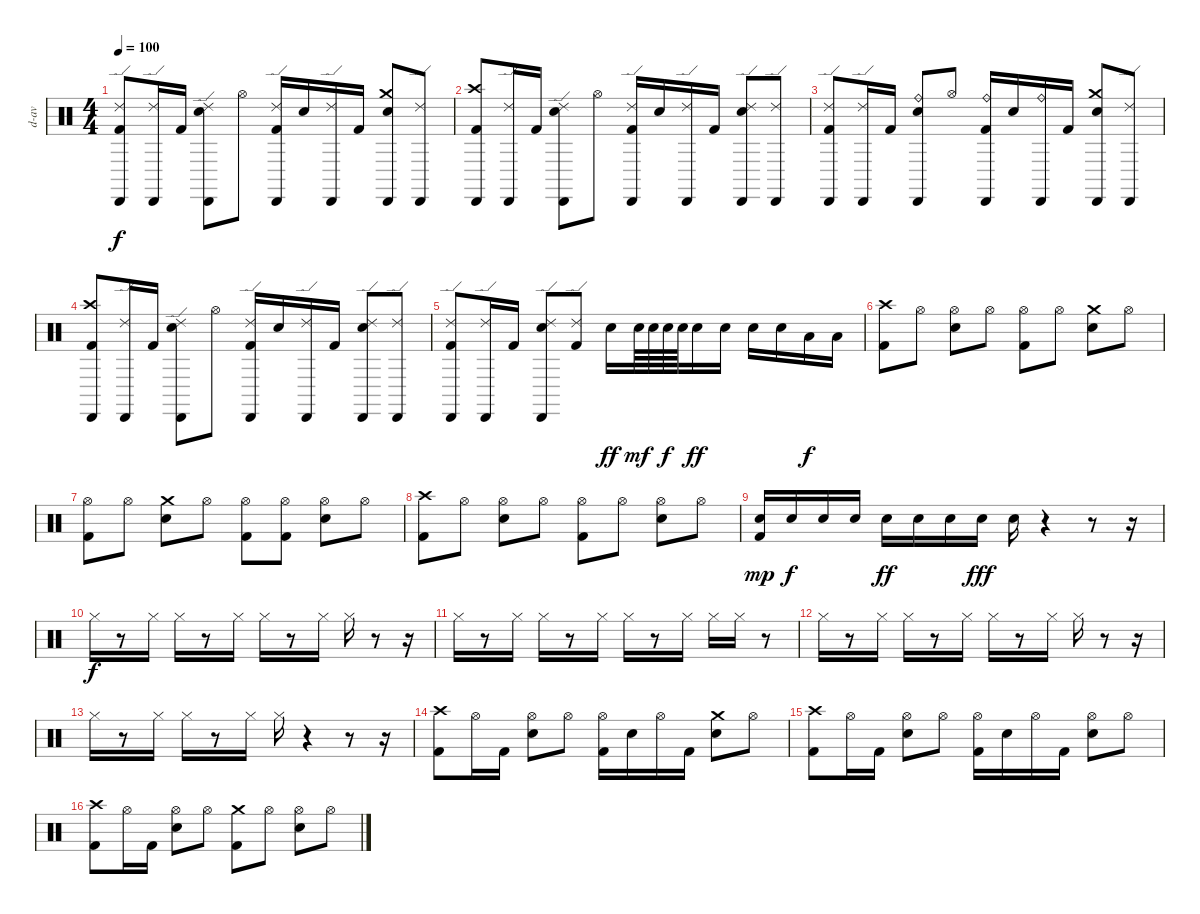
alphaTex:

\track ("d-av" "d-av") {instrument percussion}
\staff {score}
\articulation defaults
\ts (4 4)
\tempo 100
\clef neutral
\ks c
("Ride (edge) 2" "Kick (hit) 2" "Cabasa (hit)").8{dy f} ("Ride (edge) 2" "Cabasa (hit)").16 "Kick (hit) 2".16 ("Ride (edge) 2" "Electric Snare (hit)" "Cabasa (hit)").8 "Hi-Hat (open)".8 ("Ride (edge) 2" "Kick (hit) 2" "Cabasa (hit)").16 "Electric Snare (hit)".16 ("Ride (edge) 2" "Cabasa (hit)").16 "Kick (hit) 2".16 ("Crash medium (hit)" "Electric Snare (hit)" "Cabasa (hit)").8 ("Ride (edge) 2" "Cabasa (hit)").8 |
("Crash high (hit)" "Kick (hit) 2" "Cabasa (hit)").8 ("Ride (edge) 2" "Cabasa (hit)").16 "Kick (hit) 2".16 ("Ride (edge) 2" "Electric Snare (hit)" "Cabasa (hit)").8 "Hi-Hat (open)".8 ("Ride (edge) 2" "Kick (hit) 2" "Cabasa (hit)").16 "Electric Snare (hit)".16 ("Ride (edge) 2" "Cabasa (hit)").16 "Kick (hit) 2".16 ("Ride (edge) 2" "Electric Snare (hit)" "Cabasa (hit)").8 ("Ride (edge) 2" "Cabasa (hit)").8 |
("Ride (edge) 2" "Kick (hit) 2" "Cabasa (hit)").8 ("Ride (edge) 2" "Cabasa (hit)").16 "Kick (hit) 2".16 ("Ride (bell)" "Electric Snare (hit)" "Cabasa (hit)").8 "Hi-Hat (open)".8 ("Ride (bell)" "Kick (hit) 2" "Cabasa (hit)").16 "Electric Snare (hit)".16 ("Ride (bell)" "Cabasa (hit)").16 "Kick (hit) 2".16 ("Crash medium (hit)" "Electric Snare (hit)" "Cabasa (hit)").8 ("Ride (edge) 2" "Cabasa (hit)").8 |
("Crash high (hit)" "Kick (hit) 2" "Cabasa (hit)").8 ("Ride (edge) 2" "Cabasa (hit)").16 "Kick (hit) 2".16 ("Ride (edge) 2" "Electric Snare (hit)" "Cabasa (hit)").8 "Hi-Hat (open)".8 ("Ride (edge) 2" "Kick (hit) 2" "Cabasa (hit)").16 "Electric Snare (hit)".16 ("Ride (edge) 2" "Cabasa (hit)").16 "Kick (hit) 2".16 ("Ride (edge) 2" "Electric Snare (hit)" "Cabasa (hit)").8 ("Ride (edge) 2" "Cabasa (hit)").8 |
("Ride (edge) 2" "Kick (hit) 2" "Cabasa (hit)").8 ("Ride (edge) 2" "Cabasa (hit)").16 "Kick (hit) 2".16 ("Ride (edge) 2" "Electric Snare (hit)" "Cabasa (hit)").8 ("Ride (edge) 2" "Kick (hit) 2").8 "Electric Snare (hit)".16{dy ff} "Electric Snare (hit)".64{dy mf} "Electric Snare (hit)".64 "Electric Snare (hit)".64{dy f} "Electric Snare (hit)".64 "Electric Snare (hit)".16{dy ff} "Electric Snare (hit)".16 "Electric Snare (hit)".16 "Electric Snare (hit)".16 "Low Tom (hit)".16{dy f} "Low Tom (hit)".16 |
("Crash high (hit)" "Kick (hit) 2").8 "Hi-Hat (open)".8 ("Hi-Hat (open)" "Electric Snare (hit)").8 "Hi-Hat (open)".8 ("Hi-Hat (open)" "Kick (hit) 2").8 "Hi-Hat (open)".8 ("Crash medium (hit)" "Electric Snare (hit)").8 "Hi-Hat (open)".8 |
("Hi-Hat (open)" "Kick (hit) 2").8 "Hi-Hat (open)".8 ("Crash medium (hit)" "Electric Snare (hit)").8 "Hi-Hat (open)".8 ("Hi-Hat (open)" "Kick (hit) 2").8 ("Hi-Hat (open)" "Kick (hit) 2").8 ("Hi-Hat (open)" "Electric Snare (hit)").8 "Hi-Hat (open)".8 |
("Crash high (hit)" "Kick (hit) 2").8 "Hi-Hat (open)".8 ("Hi-Hat (open)" "Electric Snare (hit)").8 "Hi-Hat (open)".8 ("Hi-Hat (open)" "Kick (hit) 2").8 "Hi-Hat (open)".8 ("Hi-Hat (open)" "Electric Snare (hit)").8 "Hi-Hat (open)".8 |
("Electric Snare (hit)" "Kick (hit) 2").16{dy mp} "Electric Snare (hit)".16{dy f} "Electric Snare (hit)".16 "Electric Snare (hit)".16 "Electric Snare (hit)".16{dy ff} "Electric Snare (hit)".16 "Electric Snare (hit)".16 "Electric Snare (hit)".16{dy fff} "Electric Snare (hit)".16 r.4 r.8 r.16 |
"Hi-Hat (closed)".16{dy f} r.8 "Hi-Hat (closed)".16 "Hi-Hat (closed)".16 r.8 "Hi-Hat (closed)".16 "Hi-Hat (closed)".16 r.8 "Hi-Hat (closed)".16 "Hi-Hat (closed)".16 r.8 r.16 |
"Hi-Hat (closed)".16 r.8 "Hi-Hat (closed)".16 "Hi-Hat (closed)".16 r.8 "Hi-Hat (closed)".16 "Hi-Hat (closed)".16 r.8 "Hi-Hat (closed)".16 "Hi-Hat (closed)".16 "Hi-Hat (closed)".16 r.8 |
"Hi-Hat (closed)".16 r.8 "Hi-Hat (closed)".16 "Hi-Hat (closed)".16 r.8 "Hi-Hat (closed)".16 "Hi-Hat (closed)".16 r.8 "Hi-Hat (closed)".16 "Hi-Hat (closed)".16 r.8 r.16 |
"Hi-Hat (closed)".16 r.8 "Hi-Hat (closed)".16 "Hi-Hat (closed)".16 r.8 "Hi-Hat (closed)".16 "Hi-Hat (closed)".16 r.4 r.8 r.16 |
("Crash high (hit)" "Kick (hit) 2").8 "Hi-Hat (open)".16 "Kick (hit) 2".16 ("Hi-Hat (open)" "Electric Snare (hit)").8 "Hi-Hat (open)".8 ("Hi-Hat (open)" "Kick (hit) 2").16 "Electric Snare (hit)".16 "Hi-Hat (open)".16 "Kick (hit) 2".16 ("Crash medium (hit)" "Electric Snare (hit)").8 "Hi-Hat (open)".8 |
("Crash high (hit)" "Kick (hit) 2").8 "Hi-Hat (open)".16 "Kick (hit) 2".16 ("Hi-Hat (open)" "Electric Snare (hit)").8 "Hi-Hat (open)".8 ("Hi-Hat (open)" "Kick (hit) 2").16 "Electric Snare (hit)".16 "Hi-Hat (open)".16 "Kick (hit) 2".16 ("Hi-Hat (open)" "Electric Snare (hit)").8 "Hi-Hat (open)".8 |
("Crash high (hit)" "Kick (hit) 2").8 "Hi-Hat (open)".16 "Kick (hit) 2".16 ("Hi-Hat (open)" "Electric Snare (hit)").8 "Hi-Hat (open)".8 ("Crash medium (hit)" "Kick (hit) 2").8 "Hi-Hat (open)".8 ("Hi-Hat (open)" "Electric Snare (hit)").8 "Hi-Hat (open)".8
